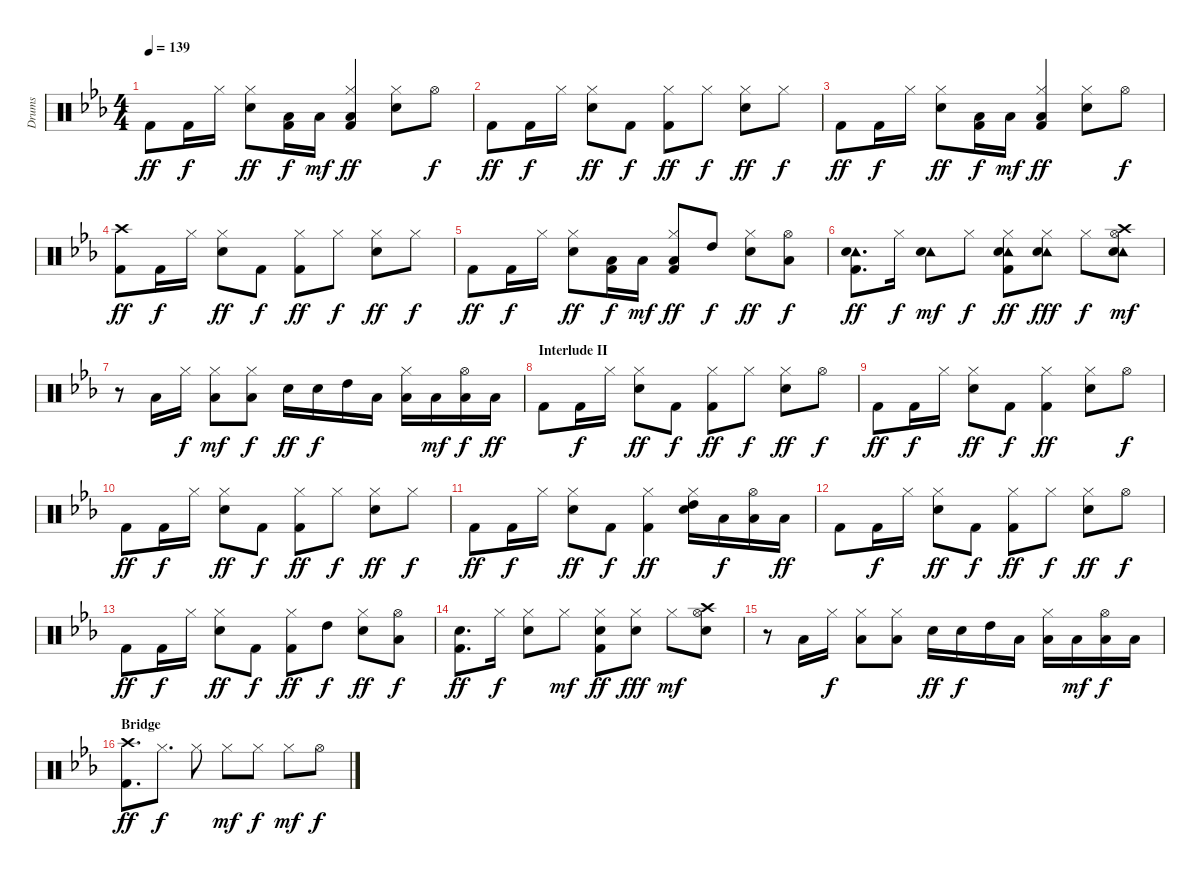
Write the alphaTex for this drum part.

\track ("Drums" "Drums") {instrument percussion}
\staff {score}
\articulation defaults
\ts (4 4)
\tempo 139
\clef neutral
\ks cminor "Kick (hit) 2".8{dy ff} "Kick (hit) 2".16{dy f} "Hi-Hat (closed)".16
("Hi-Hat (closed)" "Snare (hit) 2").8{dy ff} ("Low Floor Tom (hit)" "Kick (hit) 2").16{dy f} "Low Tom (hit)".16{dy mf} ("Low Floor Tom (hit)" "Hi-Hat (closed)" "Kick (hit) 2").4{dy ff} ("Hi-Hat (closed)" "Snare (hit) 2").8 "Hi-Hat (open)".8{dy f} |
"Kick (hit) 2".8{dy ff} "Kick (hit) 2".16{dy f} "Hi-Hat (closed)".16 ("Hi-Hat (closed)" "Snare (hit) 2").8{dy ff} "Kick (hit) 2".8{dy f} ("Hi-Hat (closed)" "Kick (hit) 2").8{dy ff} "Hi-Hat (closed)".8{dy f} ("Hi-Hat (closed)" "Snare (hit) 2").8{dy ff} "Hi-Hat (closed)".8{dy f} |
"Kick (hit) 2".8{dy ff} "Kick (hit) 2".16{dy f} "Hi-Hat (closed)".16 ("Hi-Hat (closed)" "Snare (hit) 2").8{dy ff} ("Low Floor Tom (hit)" "Kick (hit) 2").16{dy f} "Low Tom (hit)".16{dy mf} ("Low Floor Tom (hit)" "Hi-Hat (closed)" "Kick (hit) 2").4{dy ff} ("Hi-Hat (closed)" "Snare (hit) 2").8 "Hi-Hat (open)".8{dy f} |
("Crash high (hit)" "Kick (hit) 2").8{dy ff} "Kick (hit) 2".16{dy f} "Hi-Hat (closed)".16 ("Hi-Hat (closed)" "Snare (hit) 2").8{dy ff} "Kick (hit) 2".8{dy f} ("Hi-Hat (closed)" "Kick (hit) 2").8{dy ff} "Hi-Hat (closed)".8{dy f} ("Hi-Hat (closed)" "Snare (hit) 2").8{dy ff} "Hi-Hat (closed)".8{dy f} |
"Kick (hit) 2".8{dy ff} "Kick (hit) 2".16{dy f} "Hi-Hat (closed)".16 ("Hi-Hat (closed)" "Snare (hit) 2").8{dy ff} ("Low Floor Tom (hit)" "Kick (hit) 2").16{dy f} "Low Tom (hit)".16{dy mf} ("Low Floor Tom (hit)" "Hi-Hat (closed)" "Kick (hit) 2").8{dy ff} "High Tom (hit)".8{dy f} ("Hi-Hat (closed)" "Snare (hit) 2").8{dy ff} ("Low Floor Tom (hit)" "Hi-Hat (open)").8{dy f} |
("Tambourine (hit)" "Snare (hit) 2" "Kick (hit) 2").8{d dy ff} "Hi-Hat (closed)".16{dy f} ("Tambourine (hit)" "Snare (hit) 2").8{dy mf} "Hi-Hat (closed)".8{dy f} ("Tambourine (hit)" "Snare (hit) 2" "Hi-Hat (closed)" "Kick (hit) 2").8{dy ff} ("Tambourine (hit)" "Snare (hit) 2" "Hi-Hat (closed)").8{dy fff} "Hi-Hat (closed)".8{dy f} ("Tambourine (hit)" "Crash high (hit)" "Snare (hit) 2" "Hi-Hat (open)").8{dy mf} |
r.8 "Low Floor Tom (hit)".16 "Hi-Hat (closed)".16{dy f} ("Low Floor Tom (hit)" "Hi-Hat (closed)").8{dy mf} ("Low Floor Tom (hit)" "Hi-Hat (closed)").8{dy f} "Snare (hit) 2".16{dy ff} "Snare (hit) 2".16{dy f} "High Tom (hit)".16 "Low Tom (hit)".16 ("Low Tom (hit)" "Hi-Hat (closed)").16 "Low Floor Tom (hit)".16{dy mf} ("Low Floor Tom (hit)" "Hi-Hat (open)").16{dy f} "Low Floor Tom (hit)".16{dy ff} |
\section ("" "Interlude II")
"Kick (hit) 2".8 "Kick (hit) 2".16{dy f} "Hi-Hat (closed)".16 ("Hi-Hat (closed)" "Snare (hit) 2").8{dy ff} "Kick (hit) 2".8{dy f} ("Hi-Hat (closed)" "Kick (hit) 2").8{dy ff} "Hi-Hat (closed)".8{dy f} ("Hi-Hat (closed)" "Snare (hit) 2").8{dy ff} "Hi-Hat (open)".8{dy f} |
"Kick (hit) 2".8{dy ff} "Kick (hit) 2".16{dy f} "Hi-Hat (closed)".16 ("Hi-Hat (closed)" "Snare (hit) 2").8{dy ff} "Kick (hit) 2".8{dy f} ("Hi-Hat (closed)" "Kick (hit) 2").4{dy ff} ("Hi-Hat (closed)" "Snare (hit) 2").8 "Hi-Hat (open)".8{dy f} |
"Kick (hit) 2".8{dy ff} "Kick (hit) 2".16{dy f} "Hi-Hat (closed)".16 ("Hi-Hat (closed)" "Snare (hit) 2").8{dy ff} "Kick (hit) 2".8{dy f} ("Hi-Hat (closed)" "Kick (hit) 2").8{dy ff} "Hi-Hat (closed)".8{dy f} ("Hi-Hat (closed)" "Snare (hit) 2").8{dy ff} "Hi-Hat (closed)".8{dy f} |
"Kick (hit) 2".8{dy ff} "Kick (hit) 2".16{dy f} "Hi-Hat (closed)".16 ("Hi-Hat (closed)" "Snare (hit) 2").8{dy ff} "Kick (hit) 2".8{dy f} ("Hi-Hat (closed)" "Kick (hit) 2").4{dy ff} ("High Tom (hit)" "Hi-Hat (closed)" "Snare (hit) 2").16 "Low Tom (hit)".16{dy f} ("Low Floor Tom (hit)" "Hi-Hat (open)").16 "Low Floor Tom (hit)".16{dy ff} |
"Kick (hit) 2".8 "Kick (hit) 2".16{dy f} "Hi-Hat (closed)".16 ("Hi-Hat (closed)" "Snare (hit) 2").8{dy ff} "Kick (hit) 2".8{dy f} ("Hi-Hat (closed)" "Kick (hit) 2").8{dy ff} "Hi-Hat (closed)".8{dy f} ("Hi-Hat (closed)" "Snare (hit) 2").8{dy ff} "Hi-Hat (open)".8{dy f} |
"Kick (hit) 2".8{dy ff} "Kick (hit) 2".16{dy f} "Hi-Hat (closed)".16 ("Hi-Hat (closed)" "Snare (hit) 2").8{dy ff} "Kick (hit) 2".8{dy f} ("Hi-Hat (closed)" "Kick (hit) 2").8{dy ff} "High Tom (hit)".8{dy f} ("Hi-Hat (closed)" "Snare (hit) 2").8{dy ff} ("Low Floor Tom (hit)" "Hi-Hat (open)").8{dy f} |
("Snare (hit) 2" "Kick (hit) 2").8{d dy ff} "Hi-Hat (closed)".16{dy f} ("Hi-Hat (closed)" "Snare (hit) 2").8 "Hi-Hat (closed)".8{dy mf} ("Snare (hit) 2" "Hi-Hat (closed)" "Kick (hit) 2").8{dy ff} ("Snare (hit) 2" "Hi-Hat (closed)").8{dy fff} "Hi-Hat (closed)".8{dy mf} ("Crash high (hit)" "Snare (hit) 2" "Hi-Hat (open)").8 |
r.8 "Low Floor Tom (hit)".16 "Hi-Hat (closed)".16{dy f} ("Low Floor Tom (hit)" "Hi-Hat (closed)").8 ("Low Floor Tom (hit)" "Hi-Hat (closed)").8 "Snare (hit) 2".16{dy ff} "Snare (hit) 2".16{dy f} "High Tom (hit)".16 "Low Tom (hit)".16 ("Low Tom (hit)" "Hi-Hat (closed)").16 "Low Floor Tom (hit)".16{dy mf} ("Low Floor Tom (hit)" "Hi-Hat (open)").16{dy f} "Low Floor Tom (hit)".16 |
\section ("" "Bridge")
("Crash high (hit)" "Kick (hit) 2").8{d dy ff} "Hi-Hat (closed)".8{d dy f} "Hi-Hat (closed)".8 "Hi-Hat (closed)".8{dy mf} "Hi-Hat (closed)".8{dy f} "Hi-Hat (closed)".8{dy mf} "Hi-Hat (open)".8{dy f}
